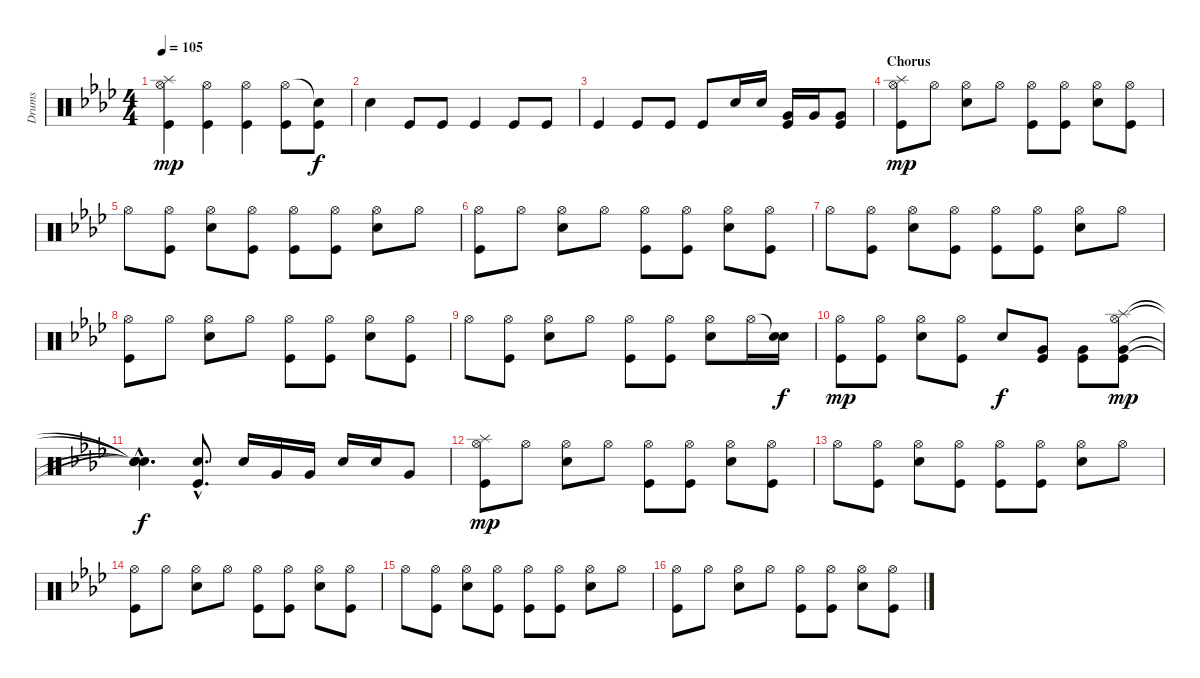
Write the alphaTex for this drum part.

\track ("Drums" "Drums") {instrument percussion}
\staff {score}
\articulation defaults
\ts (4 4)
\tempo 105
\clef neutral
\ks ab
("Splash (hit)" "Hi-Hat (open)" "Kick (hit)").4{dy mp} ("Hi-Hat (open)" "Kick (hit)").4 ("Hi-Hat (open)" "Kick (hit)").4 ("Hi-Hat (open)" "Kick (hit)").8 ("Snare (hit)"{t} "Kick (hit)").8{dy f} |
"Electric Snare (hit)".4 "Kick (hit)".8 "Kick (hit)".8 "Kick (hit)".4 "Kick (hit)".8 "Kick (hit)".8 |
"Kick (hit)".4 "Kick (hit)".8 "Kick (hit)".8 "Kick (hit)".8 "Electric Snare (hit)".16 "Electric Snare (hit)".16 ("Very Low Tom (hit)" "Kick (hit)").16 "Very Low Tom (hit)".16 ("Very Low Tom (hit)" "Kick (hit)").8 |
\section ("" "Chorus")
("Splash (hit)" "Hi-Hat (open)" "Kick (hit)").8{dy mp} "Hi-Hat (open)".8 ("Hi-Hat (open)" "Electric Snare (hit)").8 "Hi-Hat (open)".8 ("Hi-Hat (open)" "Kick (hit)").8 ("Hi-Hat (open)" "Kick (hit)").8 ("Hi-Hat (open)" "Electric Snare (hit)").8 ("Hi-Hat (open)" "Kick (hit)").8 |
"Hi-Hat (open)".8 ("Hi-Hat (open)" "Kick (hit)").8 ("Hi-Hat (open)" "Electric Snare (hit)").8 ("Hi-Hat (open)" "Kick (hit)").8 ("Hi-Hat (open)" "Kick (hit)").8 ("Hi-Hat (open)" "Kick (hit)").8 ("Hi-Hat (open)" "Electric Snare (hit)").8 "Hi-Hat (open)".8 |
("Hi-Hat (open)" "Kick (hit)").8 "Hi-Hat (open)".8 ("Hi-Hat (open)" "Electric Snare (hit)").8 "Hi-Hat (open)".8 ("Hi-Hat (open)" "Kick (hit)").8 ("Hi-Hat (open)" "Kick (hit)").8 ("Hi-Hat (open)" "Electric Snare (hit)").8 ("Hi-Hat (open)" "Kick (hit)").8 |
"Hi-Hat (open)".8 ("Hi-Hat (open)" "Kick (hit)").8 ("Hi-Hat (open)" "Electric Snare (hit)").8 ("Hi-Hat (open)" "Kick (hit)").8 ("Hi-Hat (open)" "Kick (hit)").8 ("Hi-Hat (open)" "Kick (hit)").8 ("Hi-Hat (open)" "Electric Snare (hit)").8 "Hi-Hat (open)".8 |
("Hi-Hat (open)" "Kick (hit)").8 "Hi-Hat (open)".8 ("Hi-Hat (open)" "Electric Snare (hit)").8 "Hi-Hat (open)".8 ("Hi-Hat (open)" "Kick (hit)").8 ("Hi-Hat (open)" "Kick (hit)").8 ("Hi-Hat (open)" "Electric Snare (hit)").8 ("Hi-Hat (open)" "Kick (hit)").8 |
"Hi-Hat (open)".8 ("Hi-Hat (open)" "Kick (hit)").8 ("Hi-Hat (open)" "Electric Snare (hit)").8 "Hi-Hat (open)".8 ("Hi-Hat (open)" "Kick (hit)").8 ("Hi-Hat (open)" "Kick (hit)").8 ("Hi-Hat (open)" "Electric Snare (hit)").8 "Hi-Hat (open)".16 ("Snare (hit)"{t} "Electric Snare (hit)").16{dy f} |
("Hi-Hat (open)" "Kick (hit)").8{dy mp} ("Hi-Hat (open)" "Kick (hit)").8 ("Hi-Hat (open)" "Electric Snare (hit)").8 ("Hi-Hat (open)" "Kick (hit)").8 "Electric Snare (hit)".8{dy f} ("Very Low Tom (hit)" "Kick (hit)").8 ("Very Low Tom (hit)" "Kick (hit)").8 ("Splash (hit)" "Hi-Hat (open)" "Very Low Tom (hit)" "Kick (hit)").8{dy mp} |
("Snare (hit)"{hac t} "Snare (hit)"{hac t} "Snare (hit)"{hac t} "Snare (hit)"{hac t}).4{d dy f} ("Electric Snare (hit)"{hac} "Kick (hit)"{hac}).8{d} "Electric Snare (hit)".16 "Very Low Tom (hit)".16 "Very Low Tom (hit)".16 "Electric Snare (hit)".16 "Electric Snare (hit)".16 "Very Low Tom (hit)".8 |
("Splash (hit)" "Hi-Hat (open)" "Kick (hit)").8{dy mp} "Hi-Hat (open)".8 ("Hi-Hat (open)" "Electric Snare (hit)").8 "Hi-Hat (open)".8 ("Hi-Hat (open)" "Kick (hit)").8 ("Hi-Hat (open)" "Kick (hit)").8 ("Hi-Hat (open)" "Electric Snare (hit)").8 ("Hi-Hat (open)" "Kick (hit)").8 |
"Hi-Hat (open)".8 ("Hi-Hat (open)" "Kick (hit)").8 ("Hi-Hat (open)" "Electric Snare (hit)").8 ("Hi-Hat (open)" "Kick (hit)").8 ("Hi-Hat (open)" "Kick (hit)").8 ("Hi-Hat (open)" "Kick (hit)").8 ("Hi-Hat (open)" "Electric Snare (hit)").8 "Hi-Hat (open)".8 |
("Hi-Hat (open)" "Kick (hit)").8 "Hi-Hat (open)".8 ("Hi-Hat (open)" "Electric Snare (hit)").8 "Hi-Hat (open)".8 ("Hi-Hat (open)" "Kick (hit)").8 ("Hi-Hat (open)" "Kick (hit)").8 ("Hi-Hat (open)" "Electric Snare (hit)").8 ("Hi-Hat (open)" "Kick (hit)").8 |
"Hi-Hat (open)".8 ("Hi-Hat (open)" "Kick (hit)").8 ("Hi-Hat (open)" "Electric Snare (hit)").8 ("Hi-Hat (open)" "Kick (hit)").8 ("Hi-Hat (open)" "Kick (hit)").8 ("Hi-Hat (open)" "Kick (hit)").8 ("Hi-Hat (open)" "Electric Snare (hit)").8 "Hi-Hat (open)".8 |
("Hi-Hat (open)" "Kick (hit)").8 "Hi-Hat (open)".8 ("Hi-Hat (open)" "Electric Snare (hit)").8 "Hi-Hat (open)".8 ("Hi-Hat (open)" "Kick (hit)").8 ("Hi-Hat (open)" "Kick (hit)").8 ("Hi-Hat (open)" "Electric Snare (hit)").8 ("Hi-Hat (open)" "Kick (hit)").8
